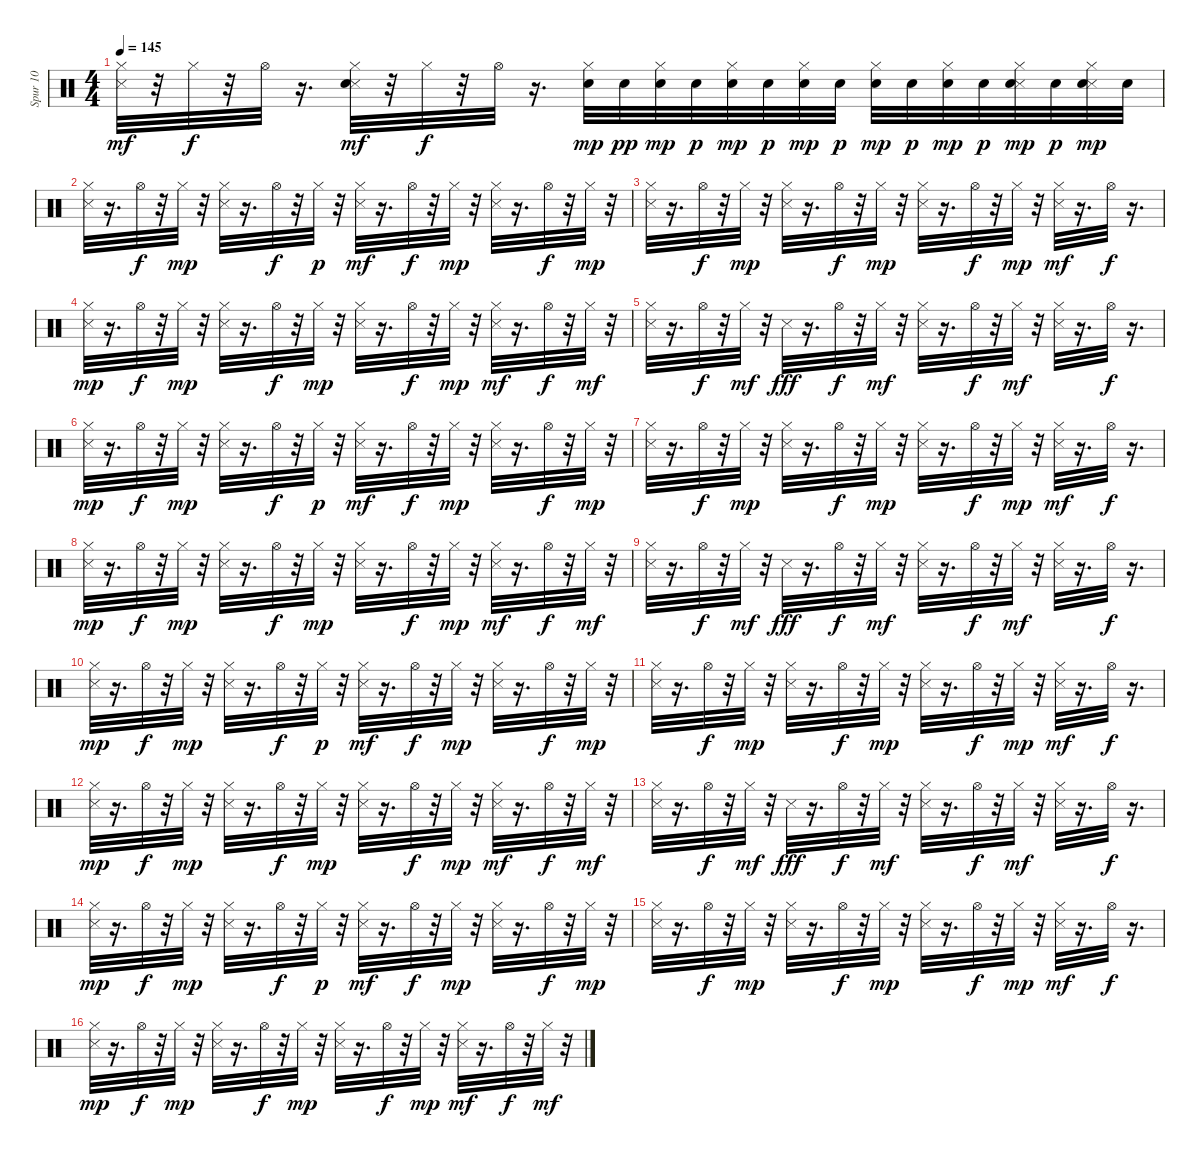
\track ("Spur 10" "Spur 10") {instrument percussion}
\staff {score}
\articulation defaults
\ts (4 4)
\tempo 145
\clef neutral
\ks c
("Metronome (hit)" "Hi-Hat (closed)").32{dy mf} r.32 "Hi-Hat (closed)".32{dy f} r.32 "Hi-Hat (open)".32 r.16{d} ("Metronome (hit)" "Snare (hit) 2" "Hi-Hat (closed)").32{dy mf} r.32 "Hi-Hat (closed)".32{dy f} r.32 "Hi-Hat (open)".32 r.16{d} ("Snare (hit) 2" "Hi-Hat (closed)").32{dy mp} "Snare (hit) 2".32{dy pp} ("Snare (hit) 2" "Hi-Hat (closed)").32{dy mp} "Snare (hit) 2".32{dy p} ("Snare (hit) 2" "Hi-Hat (closed)").32{dy mp} "Snare (hit) 2".32{dy p} ("Snare (hit) 2" "Hi-Hat (closed)").32{dy mp} "Snare (hit) 2".32{dy p} ("Snare (hit) 2" "Hi-Hat (closed)").32{dy mp} "Snare (hit) 2".32{dy p} ("Snare (hit) 2" "Hi-Hat (closed)").32{dy mp} "Snare (hit) 2".32{dy p} ("Metronome (hit)" "Snare (hit) 2" "Hi-Hat (closed)").32{dy mp} "Snare (hit) 2".32{dy p} ("Metronome (hit)" "Snare (hit) 2" "Hi-Hat (closed)").32{dy mp} "Snare (hit) 2".32 |
("Metronome (hit)" "Hi-Hat (closed)").32 r.16{d} "Hi-Hat (open)".32{dy f} r.32 "Hi-Hat (closed)".32{dy mp} r.32 ("Metronome (hit)" "Hi-Hat (closed)").32 r.16{d} "Hi-Hat (open)".32{dy f} r.32 "Hi-Hat (closed)".32{dy p} r.32 ("Metronome (hit)" "Hi-Hat (closed)").32{dy mf} r.16{d} "Hi-Hat (open)".32{dy f} r.32 "Hi-Hat (closed)".32{dy mp} r.32 ("Metronome (hit)" "Hi-Hat (closed)").32 r.16{d} "Hi-Hat (open)".32{dy f} r.32 "Hi-Hat (closed)".32{dy mp} r.32 |
("Metronome (hit)" "Hi-Hat (closed)").32 r.16{d} "Hi-Hat (open)".32{dy f} r.32 "Hi-Hat (closed)".32{dy mp} r.32 ("Metronome (hit)" "Hi-Hat (closed)").32 r.16{d} "Hi-Hat (open)".32{dy f} r.32 "Hi-Hat (closed)".32{dy mp} r.32 ("Metronome (hit)" "Hi-Hat (closed)").32 r.16{d} "Hi-Hat (open)".32{dy f} r.32 "Hi-Hat (closed)".32{dy mp} r.32 ("Metronome (hit)" "Hi-Hat (closed)").32{dy mf} r.16{d} "Hi-Hat (open)".32{dy f} r.16{d} |
("Metronome (hit)" "Hi-Hat (closed)").32{dy mp} r.16{d} "Hi-Hat (open)".32{dy f} r.32 "Hi-Hat (closed)".32{dy mp} r.32 ("Metronome (hit)" "Hi-Hat (closed)").32 r.16{d} "Hi-Hat (open)".32{dy f} r.32 "Hi-Hat (closed)".32{dy mp} r.32 ("Metronome (hit)" "Hi-Hat (closed)").32 r.16{d} "Hi-Hat (open)".32{dy f} r.32 "Hi-Hat (closed)".32{dy mp} r.32 ("Metronome (hit)" "Hi-Hat (closed)").32{dy mf} r.16{d} "Hi-Hat (open)".32{dy f} r.32 "Hi-Hat (closed)".32{dy mf} r.32 |
("Metronome (hit)" "Hi-Hat (closed)").32 r.16{d} "Hi-Hat (open)".32{dy f} r.32 "Hi-Hat (closed)".32{dy mf} r.32 "Metronome (hit)".32{dy fff} r.16{d} "Hi-Hat (open)".32{dy f} r.32 "Hi-Hat (closed)".32{dy mf} r.32 ("Metronome (hit)" "Hi-Hat (closed)").32 r.16{d} "Hi-Hat (open)".32{dy f} r.32 "Hi-Hat (closed)".32{dy mf} r.32 ("Metronome (hit)" "Hi-Hat (closed)").32 r.16{d} "Hi-Hat (open)".32{dy f} r.16{d} |
("Metronome (hit)" "Hi-Hat (closed)").32{dy mp} r.16{d} "Hi-Hat (open)".32{dy f} r.32 "Hi-Hat (closed)".32{dy mp} r.32 ("Metronome (hit)" "Hi-Hat (closed)").32 r.16{d} "Hi-Hat (open)".32{dy f} r.32 "Hi-Hat (closed)".32{dy p} r.32 ("Metronome (hit)" "Hi-Hat (closed)").32{dy mf} r.16{d} "Hi-Hat (open)".32{dy f} r.32 "Hi-Hat (closed)".32{dy mp} r.32 ("Metronome (hit)" "Hi-Hat (closed)").32 r.16{d} "Hi-Hat (open)".32{dy f} r.32 "Hi-Hat (closed)".32{dy mp} r.32 |
("Metronome (hit)" "Hi-Hat (closed)").32 r.16{d} "Hi-Hat (open)".32{dy f} r.32 "Hi-Hat (closed)".32{dy mp} r.32 ("Metronome (hit)" "Hi-Hat (closed)").32 r.16{d} "Hi-Hat (open)".32{dy f} r.32 "Hi-Hat (closed)".32{dy mp} r.32 ("Metronome (hit)" "Hi-Hat (closed)").32 r.16{d} "Hi-Hat (open)".32{dy f} r.32 "Hi-Hat (closed)".32{dy mp} r.32 ("Metronome (hit)" "Hi-Hat (closed)").32{dy mf} r.16{d} "Hi-Hat (open)".32{dy f} r.16{d} |
("Metronome (hit)" "Hi-Hat (closed)").32{dy mp} r.16{d} "Hi-Hat (open)".32{dy f} r.32 "Hi-Hat (closed)".32{dy mp} r.32 ("Metronome (hit)" "Hi-Hat (closed)").32 r.16{d} "Hi-Hat (open)".32{dy f} r.32 "Hi-Hat (closed)".32{dy mp} r.32 ("Metronome (hit)" "Hi-Hat (closed)").32 r.16{d} "Hi-Hat (open)".32{dy f} r.32 "Hi-Hat (closed)".32{dy mp} r.32 ("Metronome (hit)" "Hi-Hat (closed)").32{dy mf} r.16{d} "Hi-Hat (open)".32{dy f} r.32 "Hi-Hat (closed)".32{dy mf} r.32 |
("Metronome (hit)" "Hi-Hat (closed)").32 r.16{d} "Hi-Hat (open)".32{dy f} r.32 "Hi-Hat (closed)".32{dy mf} r.32 "Metronome (hit)".32{dy fff} r.16{d} "Hi-Hat (open)".32{dy f} r.32 "Hi-Hat (closed)".32{dy mf} r.32 ("Metronome (hit)" "Hi-Hat (closed)").32 r.16{d} "Hi-Hat (open)".32{dy f} r.32 "Hi-Hat (closed)".32{dy mf} r.32 ("Metronome (hit)" "Hi-Hat (closed)").32 r.16{d} "Hi-Hat (open)".32{dy f} r.16{d} |
("Metronome (hit)" "Hi-Hat (closed)").32{dy mp} r.16{d} "Hi-Hat (open)".32{dy f} r.32 "Hi-Hat (closed)".32{dy mp} r.32 ("Metronome (hit)" "Hi-Hat (closed)").32 r.16{d} "Hi-Hat (open)".32{dy f} r.32 "Hi-Hat (closed)".32{dy p} r.32 ("Metronome (hit)" "Hi-Hat (closed)").32{dy mf} r.16{d} "Hi-Hat (open)".32{dy f} r.32 "Hi-Hat (closed)".32{dy mp} r.32 ("Metronome (hit)" "Hi-Hat (closed)").32 r.16{d} "Hi-Hat (open)".32{dy f} r.32 "Hi-Hat (closed)".32{dy mp} r.32 |
("Metronome (hit)" "Hi-Hat (closed)").32 r.16{d} "Hi-Hat (open)".32{dy f} r.32 "Hi-Hat (closed)".32{dy mp} r.32 ("Metronome (hit)" "Hi-Hat (closed)").32 r.16{d} "Hi-Hat (open)".32{dy f} r.32 "Hi-Hat (closed)".32{dy mp} r.32 ("Metronome (hit)" "Hi-Hat (closed)").32 r.16{d} "Hi-Hat (open)".32{dy f} r.32 "Hi-Hat (closed)".32{dy mp} r.32 ("Metronome (hit)" "Hi-Hat (closed)").32{dy mf} r.16{d} "Hi-Hat (open)".32{dy f} r.16{d} |
("Metronome (hit)" "Hi-Hat (closed)").32{dy mp} r.16{d} "Hi-Hat (open)".32{dy f} r.32 "Hi-Hat (closed)".32{dy mp} r.32 ("Metronome (hit)" "Hi-Hat (closed)").32 r.16{d} "Hi-Hat (open)".32{dy f} r.32 "Hi-Hat (closed)".32{dy mp} r.32 ("Metronome (hit)" "Hi-Hat (closed)").32 r.16{d} "Hi-Hat (open)".32{dy f} r.32 "Hi-Hat (closed)".32{dy mp} r.32 ("Metronome (hit)" "Hi-Hat (closed)").32{dy mf} r.16{d} "Hi-Hat (open)".32{dy f} r.32 "Hi-Hat (closed)".32{dy mf} r.32 |
("Metronome (hit)" "Hi-Hat (closed)").32 r.16{d} "Hi-Hat (open)".32{dy f} r.32 "Hi-Hat (closed)".32{dy mf} r.32 "Metronome (hit)".32{dy fff} r.16{d} "Hi-Hat (open)".32{dy f} r.32 "Hi-Hat (closed)".32{dy mf} r.32 ("Metronome (hit)" "Hi-Hat (closed)").32 r.16{d} "Hi-Hat (open)".32{dy f} r.32 "Hi-Hat (closed)".32{dy mf} r.32 ("Metronome (hit)" "Hi-Hat (closed)").32 r.16{d} "Hi-Hat (open)".32{dy f} r.16{d} |
("Metronome (hit)" "Hi-Hat (closed)").32{dy mp} r.16{d} "Hi-Hat (open)".32{dy f} r.32 "Hi-Hat (closed)".32{dy mp} r.32 ("Metronome (hit)" "Hi-Hat (closed)").32 r.16{d} "Hi-Hat (open)".32{dy f} r.32 "Hi-Hat (closed)".32{dy p} r.32 ("Metronome (hit)" "Hi-Hat (closed)").32{dy mf} r.16{d} "Hi-Hat (open)".32{dy f} r.32 "Hi-Hat (closed)".32{dy mp} r.32 ("Metronome (hit)" "Hi-Hat (closed)").32 r.16{d} "Hi-Hat (open)".32{dy f} r.32 "Hi-Hat (closed)".32{dy mp} r.32 |
("Metronome (hit)" "Hi-Hat (closed)").32 r.16{d} "Hi-Hat (open)".32{dy f} r.32 "Hi-Hat (closed)".32{dy mp} r.32 ("Metronome (hit)" "Hi-Hat (closed)").32 r.16{d} "Hi-Hat (open)".32{dy f} r.32 "Hi-Hat (closed)".32{dy mp} r.32 ("Metronome (hit)" "Hi-Hat (closed)").32 r.16{d} "Hi-Hat (open)".32{dy f} r.32 "Hi-Hat (closed)".32{dy mp} r.32 ("Metronome (hit)" "Hi-Hat (closed)").32{dy mf} r.16{d} "Hi-Hat (open)".32{dy f} r.16{d} |
("Metronome (hit)" "Hi-Hat (closed)").32{dy mp} r.16{d} "Hi-Hat (open)".32{dy f} r.32 "Hi-Hat (closed)".32{dy mp} r.32 ("Metronome (hit)" "Hi-Hat (closed)").32 r.16{d} "Hi-Hat (open)".32{dy f} r.32 "Hi-Hat (closed)".32{dy mp} r.32 ("Metronome (hit)" "Hi-Hat (closed)").32 r.16{d} "Hi-Hat (open)".32{dy f} r.32 "Hi-Hat (closed)".32{dy mp} r.32 ("Metronome (hit)" "Hi-Hat (closed)").32{dy mf} r.16{d} "Hi-Hat (open)".32{dy f} r.32 "Hi-Hat (closed)".32{dy mf} r.32
